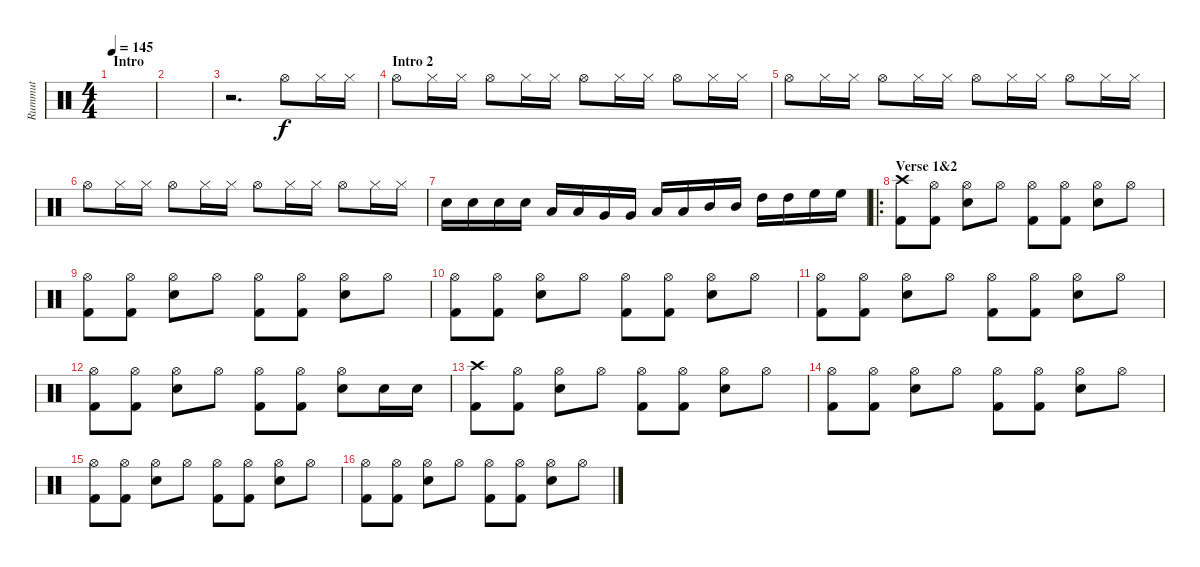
\track ("Rummut" "Rummut") {instrument percussion}
\staff {score}
\articulation defaults
\ts (4 4)
\section ("" "Intro")
\tempo 145
\clef neutral
\ks c
|
|
r.2{d} "Hi-Hat (open)".8 "Hi-Hat (closed)".16 "Hi-Hat (closed)".16 |
\section ("" "Intro 2")
"Hi-Hat (open)".8 "Hi-Hat (closed)".16 "Hi-Hat (closed)".16 "Hi-Hat (open)".8 "Hi-Hat (closed)".16 "Hi-Hat (closed)".16 "Hi-Hat (open)".8 "Hi-Hat (closed)".16 "Hi-Hat (closed)".16 "Hi-Hat (open)".8 "Hi-Hat (closed)".16 "Hi-Hat (closed)".16 |
"Hi-Hat (open)".8 "Hi-Hat (closed)".16 "Hi-Hat (closed)".16 "Hi-Hat (open)".8 "Hi-Hat (closed)".16 "Hi-Hat (closed)".16 "Hi-Hat (open)".8 "Hi-Hat (closed)".16 "Hi-Hat (closed)".16 "Hi-Hat (open)".8 "Hi-Hat (closed)".16 "Hi-Hat (closed)".16 |
"Hi-Hat (open)".8 "Hi-Hat (closed)".16 "Hi-Hat (closed)".16 "Hi-Hat (open)".8 "Hi-Hat (closed)".16 "Hi-Hat (closed)".16 "Hi-Hat (open)".8 "Hi-Hat (closed)".16 "Hi-Hat (closed)".16 "Hi-Hat (open)".8 "Hi-Hat (closed)".16 "Hi-Hat (closed)".16 |
"Electric Snare (hit)".16 "Electric Snare (hit)".16 "Electric Snare (hit)".16 "Electric Snare (hit)".16 "Low Floor Tom (hit)".16 "Low Floor Tom (hit)".16 "Very Low Tom (hit)".16 "Very Low Tom (hit)".16 "Low Tom (hit)".16 "Low Tom (hit)".16 "Mid Tom (hit)".16 "Mid Tom (hit)".16 "High Tom (hit)".16 "High Tom (hit)".16 "High Floor Tom (hit)".16 "High Floor Tom (hit)".16 |
\ro
\section ("" "Verse 1&2")
("Crash high (hit)" "Kick (hit) 2").8 ("Hi-Hat (open)" "Kick (hit) 2").8 ("Hi-Hat (open)" "Electric Snare (hit)").8 "Hi-Hat (open)".8 ("Hi-Hat (open)" "Kick (hit) 2").8 ("Hi-Hat (open)" "Kick (hit) 2").8 ("Hi-Hat (open)" "Electric Snare (hit)").8 "Hi-Hat (open)".8 |
("Hi-Hat (open)" "Kick (hit) 2").8 ("Hi-Hat (open)" "Kick (hit) 2").8 ("Hi-Hat (open)" "Electric Snare (hit)").8 "Hi-Hat (open)".8 ("Hi-Hat (open)" "Kick (hit) 2").8 ("Hi-Hat (open)" "Kick (hit) 2").8 ("Hi-Hat (open)" "Electric Snare (hit)").8 "Hi-Hat (open)".8 |
("Hi-Hat (open)" "Kick (hit) 2").8 ("Hi-Hat (open)" "Kick (hit) 2").8 ("Hi-Hat (open)" "Electric Snare (hit)").8 "Hi-Hat (open)".8 ("Hi-Hat (open)" "Kick (hit) 2").8 ("Hi-Hat (open)" "Kick (hit) 2").8 ("Hi-Hat (open)" "Electric Snare (hit)").8 "Hi-Hat (open)".8 |
("Hi-Hat (open)" "Kick (hit) 2").8 ("Hi-Hat (open)" "Kick (hit) 2").8 ("Hi-Hat (open)" "Electric Snare (hit)").8 "Hi-Hat (open)".8 ("Hi-Hat (open)" "Kick (hit) 2").8 ("Hi-Hat (open)" "Kick (hit) 2").8 ("Hi-Hat (open)" "Electric Snare (hit)").8 "Hi-Hat (open)".8 |
("Hi-Hat (open)" "Kick (hit) 2").8 ("Hi-Hat (open)" "Kick (hit) 2").8 ("Hi-Hat (open)" "Electric Snare (hit)").8 "Hi-Hat (open)".8 ("Hi-Hat (open)" "Kick (hit) 2").8 ("Hi-Hat (open)" "Kick (hit) 2").8 ("Hi-Hat (open)" "Electric Snare (hit)").8 "Electric Snare (hit)".16 "Electric Snare (hit)".16 |
("Crash high (hit)" "Kick (hit) 2").8 ("Hi-Hat (open)" "Kick (hit) 2").8 ("Hi-Hat (open)" "Electric Snare (hit)").8 "Hi-Hat (open)".8 ("Hi-Hat (open)" "Kick (hit) 2").8 ("Hi-Hat (open)" "Kick (hit) 2").8 ("Hi-Hat (open)" "Electric Snare (hit)").8 "Hi-Hat (open)".8 |
("Hi-Hat (open)" "Kick (hit) 2").8 ("Hi-Hat (open)" "Kick (hit) 2").8 ("Hi-Hat (open)" "Electric Snare (hit)").8 "Hi-Hat (open)".8 ("Hi-Hat (open)" "Kick (hit) 2").8 ("Hi-Hat (open)" "Kick (hit) 2").8 ("Hi-Hat (open)" "Electric Snare (hit)").8 "Hi-Hat (open)".8 |
("Hi-Hat (open)" "Kick (hit) 2").8 ("Hi-Hat (open)" "Kick (hit) 2").8 ("Hi-Hat (open)" "Electric Snare (hit)").8 "Hi-Hat (open)".8 ("Hi-Hat (open)" "Kick (hit) 2").8 ("Hi-Hat (open)" "Kick (hit) 2").8 ("Hi-Hat (open)" "Electric Snare (hit)").8 "Hi-Hat (open)".8 |
("Hi-Hat (open)" "Kick (hit) 2").8 ("Hi-Hat (open)" "Kick (hit) 2").8 ("Hi-Hat (open)" "Electric Snare (hit)").8 "Hi-Hat (open)".8 ("Hi-Hat (open)" "Kick (hit) 2").8 ("Hi-Hat (open)" "Kick (hit) 2").8 ("Hi-Hat (open)" "Electric Snare (hit)").8 "Hi-Hat (open)".8
